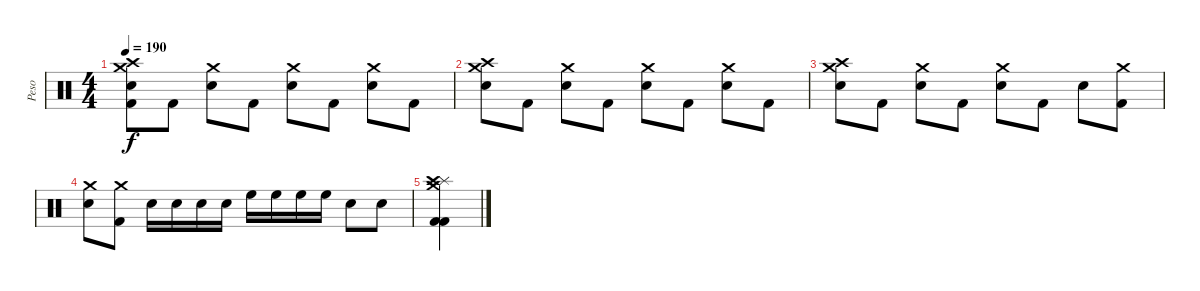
\track ("Peso" "Peso") {instrument percussion}
\staff {score}
\articulation defaults
\ts (4 4)
\tempo 190
\clef neutral
\ks c
("Crash high (hit)" "Crash medium (hit)" "Snare (hit) 2" "Kick (hit) 2").8{dy f} "Kick (hit) 2".8 ("Crash medium (hit)" "Snare (hit) 2").8 "Kick (hit) 2".8 ("Crash medium (hit)" "Snare (hit) 2").8 "Kick (hit) 2".8 ("Crash medium (hit)" "Snare (hit) 2").8 "Kick (hit) 2".8 |
("Crash high (hit)" "Crash medium (hit)" "Snare (hit) 2").8 "Kick (hit) 2".8 ("Crash medium (hit)" "Snare (hit) 2").8 "Kick (hit) 2".8 ("Crash medium (hit)" "Snare (hit) 2").8 "Kick (hit) 2".8 ("Crash medium (hit)" "Snare (hit) 2").8 "Kick (hit) 2".8 |
("Crash high (hit)" "Crash medium (hit)" "Snare (hit) 2").8 "Kick (hit) 2".8 ("Crash medium (hit)" "Snare (hit) 2").8 "Kick (hit) 2".8 ("Crash medium (hit)" "Snare (hit) 2").8 "Kick (hit) 2".8 "Snare (hit) 2".8 ("Crash medium (hit)" "Kick (hit) 2").8 |
("Crash medium (hit)" "Snare (hit) 2").8 ("Crash medium (hit)" "Kick (hit) 2").8 "Snare (hit) 2".16 "Snare (hit) 2".16 "Snare (hit) 2".16 "Snare (hit) 2".16 "High Floor Tom (hit)".16 "High Floor Tom (hit)".16 "High Floor Tom (hit)".16 "High Floor Tom (hit)".16 "Snare (hit) 2".8 "Snare (hit) 2".8 |
("Crash medium (hit)" "Splash (hit)" "Crash high (hit)" "Kick (hit) 2" "Kick (hit) 2").4
